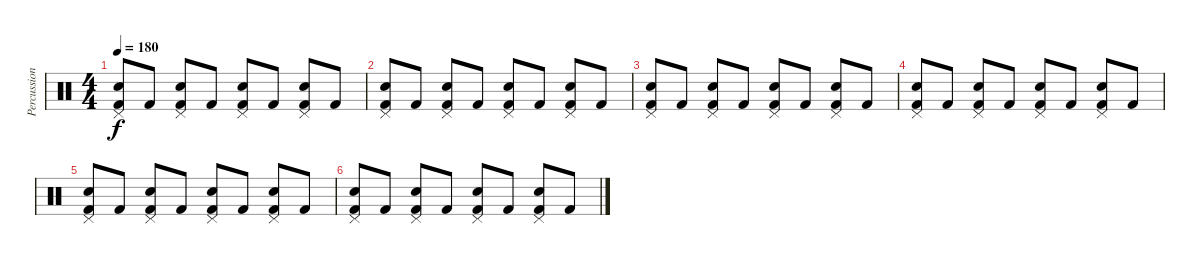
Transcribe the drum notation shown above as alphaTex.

\track ("Percussion" "Percussion") {instrument percussion}
\staff {score}
\articulation defaults
\ts (4 4)
\tempo 180
\clef neutral
\ks c
("Snare (hit) 2" "Pedal Hi-Hat (hit)" "Kick (hit) 2").8{dy f} "Kick (hit) 2".8 ("Snare (hit) 2" "Pedal Hi-Hat (hit)" "Kick (hit) 2").8 "Kick (hit) 2".8 ("Snare (hit) 2" "Pedal Hi-Hat (hit)" "Kick (hit) 2").8 "Kick (hit) 2".8 ("Snare (hit) 2" "Pedal Hi-Hat (hit)" "Kick (hit) 2").8 "Kick (hit) 2".8 |
("Snare (hit) 2" "Pedal Hi-Hat (hit)" "Kick (hit) 2").8 "Kick (hit) 2".8 ("Snare (hit) 2" "Pedal Hi-Hat (hit)" "Kick (hit) 2").8 "Kick (hit) 2".8 ("Snare (hit) 2" "Pedal Hi-Hat (hit)" "Kick (hit) 2").8 "Kick (hit) 2".8 ("Snare (hit) 2" "Pedal Hi-Hat (hit)" "Kick (hit) 2").8 "Kick (hit) 2".8 |
("Snare (hit) 2" "Pedal Hi-Hat (hit)" "Kick (hit) 2").8 "Kick (hit) 2".8 ("Snare (hit) 2" "Pedal Hi-Hat (hit)" "Kick (hit) 2").8 "Kick (hit) 2".8 ("Snare (hit) 2" "Pedal Hi-Hat (hit)" "Kick (hit) 2").8 "Kick (hit) 2".8 ("Snare (hit) 2" "Pedal Hi-Hat (hit)" "Kick (hit) 2").8 "Kick (hit) 2".8 |
("Snare (hit) 2" "Pedal Hi-Hat (hit)" "Kick (hit) 2").8 "Kick (hit) 2".8 ("Snare (hit) 2" "Pedal Hi-Hat (hit)" "Kick (hit) 2").8 "Kick (hit) 2".8 ("Snare (hit) 2" "Pedal Hi-Hat (hit)" "Kick (hit) 2").8 "Kick (hit) 2".8 ("Snare (hit) 2" "Pedal Hi-Hat (hit)" "Kick (hit) 2").8 "Kick (hit) 2".8 |
("Snare (hit) 2" "Pedal Hi-Hat (hit)" "Kick (hit) 2").8 "Kick (hit) 2".8 ("Snare (hit) 2" "Pedal Hi-Hat (hit)" "Kick (hit) 2").8 "Kick (hit) 2".8 ("Snare (hit) 2" "Pedal Hi-Hat (hit)" "Kick (hit) 2").8 "Kick (hit) 2".8 ("Snare (hit) 2" "Pedal Hi-Hat (hit)" "Kick (hit) 2").8 "Kick (hit) 2".8 |
("Snare (hit) 2" "Pedal Hi-Hat (hit)" "Kick (hit) 2").8 "Kick (hit) 2".8 ("Snare (hit) 2" "Pedal Hi-Hat (hit)" "Kick (hit) 2").8 "Kick (hit) 2".8 ("Snare (hit) 2" "Pedal Hi-Hat (hit)" "Kick (hit) 2").8 "Kick (hit) 2".8 ("Snare (hit) 2" "Pedal Hi-Hat (hit)" "Kick (hit) 2").8 "Kick (hit) 2".8
